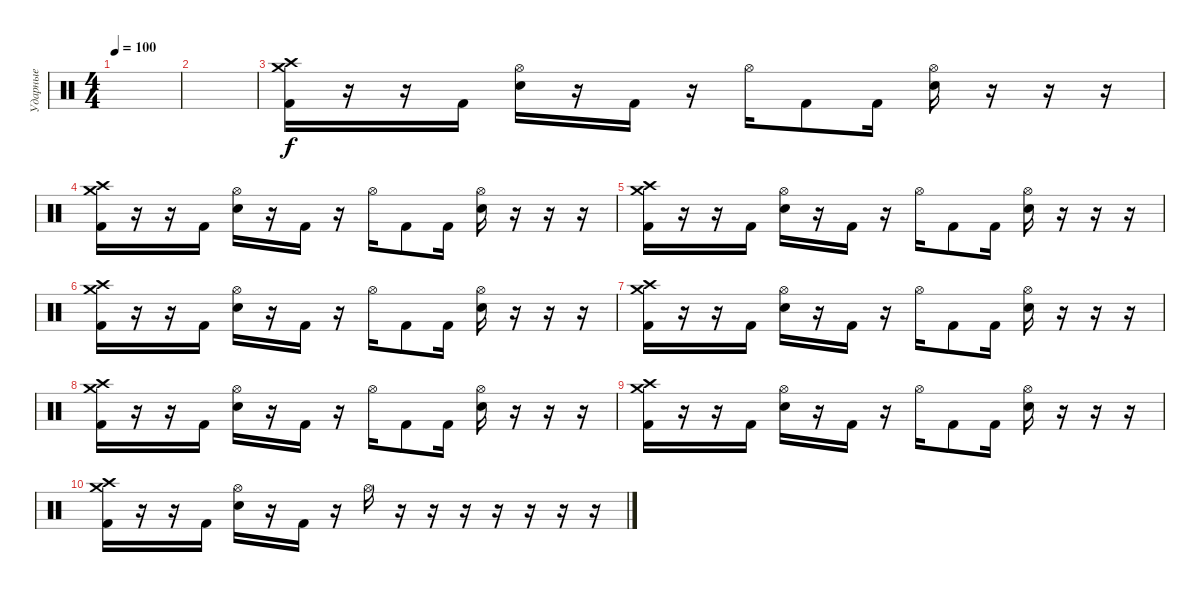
\track ("Ударные" "Ударные") {instrument percussion}
\staff {score}
\articulation defaults
\ts (4 4)
\tempo 100
\clef neutral
\ks c
|
|
("Kick (hit) 2" "Crash high (hit)" "Crash medium (hit)").16 r.16 r.16 "Kick (hit) 2".16 ("Electric Snare (hit)" "Hi-Hat (open)").16 r.16 "Kick (hit) 2".16 r.16 "Hi-Hat (open)".16 "Kick (hit) 2".8 "Kick (hit) 2".16 ("Electric Snare (hit)" "Hi-Hat (open)").16 r.16 r.16 r.16 |
("Kick (hit) 2" "Crash high (hit)" "Crash medium (hit)").16 r.16 r.16 "Kick (hit) 2".16 ("Electric Snare (hit)" "Hi-Hat (open)").16 r.16 "Kick (hit) 2".16 r.16 "Hi-Hat (open)".16 "Kick (hit) 2".8 "Kick (hit) 2".16 ("Electric Snare (hit)" "Hi-Hat (open)").16 r.16 r.16 r.16 |
("Kick (hit) 2" "Crash high (hit)" "Crash medium (hit)").16 r.16 r.16 "Kick (hit) 2".16 ("Electric Snare (hit)" "Hi-Hat (open)").16 r.16 "Kick (hit) 2".16 r.16 "Hi-Hat (open)".16 "Kick (hit) 2".8 "Kick (hit) 2".16 ("Electric Snare (hit)" "Hi-Hat (open)").16 r.16 r.16 r.16 |
("Kick (hit) 2" "Crash high (hit)" "Crash medium (hit)").16 r.16 r.16 "Kick (hit) 2".16 ("Electric Snare (hit)" "Hi-Hat (open)").16 r.16 "Kick (hit) 2".16 r.16 "Hi-Hat (open)".16 "Kick (hit) 2".8 "Kick (hit) 2".16 ("Electric Snare (hit)" "Hi-Hat (open)").16 r.16 r.16 r.16 |
("Kick (hit) 2" "Crash high (hit)" "Crash medium (hit)").16 r.16 r.16 "Kick (hit) 2".16 ("Electric Snare (hit)" "Hi-Hat (open)").16 r.16 "Kick (hit) 2".16 r.16 "Hi-Hat (open)".16 "Kick (hit) 2".8 "Kick (hit) 2".16 ("Electric Snare (hit)" "Hi-Hat (open)").16 r.16 r.16 r.16 |
("Kick (hit) 2" "Crash high (hit)" "Crash medium (hit)").16 r.16 r.16 "Kick (hit) 2".16 ("Electric Snare (hit)" "Hi-Hat (open)").16 r.16 "Kick (hit) 2".16 r.16 "Hi-Hat (open)".16 "Kick (hit) 2".8 "Kick (hit) 2".16 ("Electric Snare (hit)" "Hi-Hat (open)").16 r.16 r.16 r.16 |
("Kick (hit) 2" "Crash high (hit)" "Crash medium (hit)").16 r.16 r.16 "Kick (hit) 2".16 ("Electric Snare (hit)" "Hi-Hat (open)").16 r.16 "Kick (hit) 2".16 r.16 "Hi-Hat (open)".16 "Kick (hit) 2".8 "Kick (hit) 2".16 ("Electric Snare (hit)" "Hi-Hat (open)").16 r.16 r.16 r.16 |
("Kick (hit) 2" "Crash high (hit)" "Crash medium (hit)").16 r.16 r.16 "Kick (hit) 2".16 ("Electric Snare (hit)" "Hi-Hat (open)").16 r.16 "Kick (hit) 2".16 r.16 "Hi-Hat (open)".16 r.16 r.16 r.16 r.16 r.16 r.16 r.16
